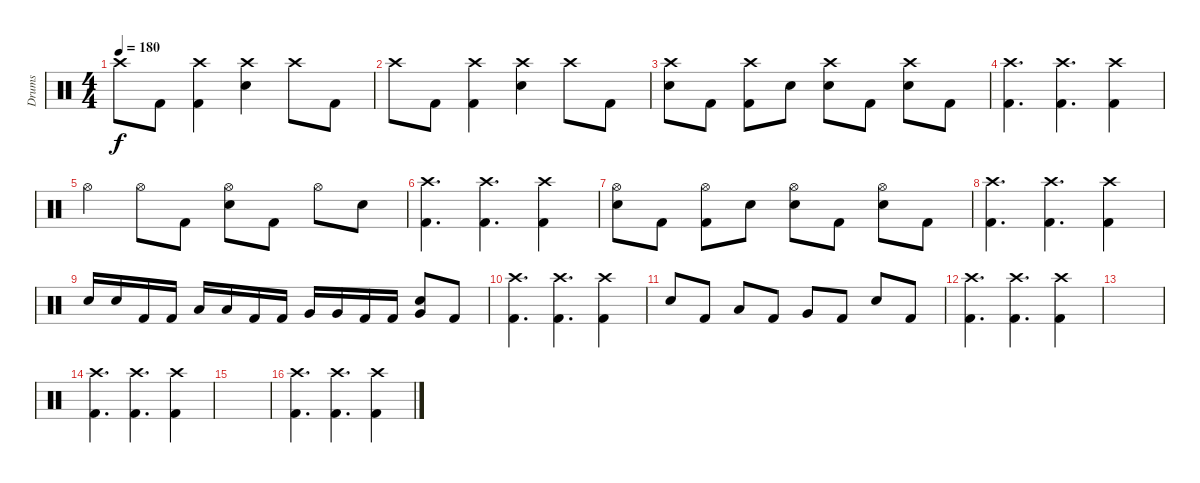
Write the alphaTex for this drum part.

\track ("Drums" "Drums") {instrument percussion}
\staff {score}
\articulation defaults
\ts (4 4)
\tempo 180
\clef neutral
\ks c "Crash high (hit)".8{dy f} "Kick (hit) 2".8
("Crash high (hit)" "Kick (hit) 2").4 ("Crash high (hit)" "Electric Snare (hit)").4 "Crash high (hit)".8 "Kick (hit) 2".8 |
"Crash high (hit)".8 "Kick (hit) 2".8 ("Crash high (hit)" "Kick (hit) 2").4 ("Crash high (hit)" "Electric Snare (hit)").4 "Crash high (hit)".8 "Kick (hit) 2".8 |
("Crash high (hit)" "Electric Snare (hit)").8 "Kick (hit) 2".8 ("Crash high (hit)" "Kick (hit) 2").8 "Electric Snare (hit)".8 ("Crash high (hit)" "Electric Snare (hit)").8 "Kick (hit) 2".8 ("Crash high (hit)" "Electric Snare (hit)").8 "Kick (hit) 2".8 |
("Crash high (hit)" "Kick (hit) 2").4{d} ("Crash high (hit)" "Kick (hit) 2").4{d} ("Crash high (hit)" "Kick (hit) 2").4 |
"Hi-Hat (open)".4 "Hi-Hat (open)".8 "Kick (hit) 2".8 ("Hi-Hat (open)" "Electric Snare (hit)").8 "Kick (hit) 2".8 "Hi-Hat (open)".8 "Electric Snare (hit)".8 |
("Crash high (hit)" "Kick (hit) 2").4{d} ("Crash high (hit)" "Kick (hit) 2").4{d} ("Crash high (hit)" "Kick (hit) 2").4 |
("Hi-Hat (open)" "Electric Snare (hit)").8 "Kick (hit) 2".8 ("Hi-Hat (open)" "Kick (hit) 2").8 "Electric Snare (hit)".8 ("Hi-Hat (open)" "Electric Snare (hit)").8 "Kick (hit) 2".8 ("Hi-Hat (open)" "Electric Snare (hit)").8 "Kick (hit) 2".8 |
("Crash high (hit)" "Kick (hit) 2").4{d} ("Crash high (hit)" "Kick (hit) 2").4{d} ("Crash high (hit)" "Kick (hit) 2").4 |
"Electric Snare (hit)".16 "Electric Snare (hit)".16 "Kick (hit) 2".16 "Kick (hit) 2".16 "Low Tom (hit)".16 "Low Tom (hit)".16 "Kick (hit) 2".16 "Kick (hit) 2".16 "Very Low Tom (hit)".16 "Very Low Tom (hit)".16 "Kick (hit) 2".16 "Kick (hit) 2".16 ("Very Low Tom (hit)" "Electric Snare (hit)").8 "Kick (hit) 2".8 |
("Crash high (hit)" "Kick (hit) 2").4{d} ("Crash high (hit)" "Kick (hit) 2").4{d} ("Crash high (hit)" "Kick (hit) 2").4 |
"Electric Snare (hit)".8 "Kick (hit) 2".8 "Low Tom (hit)".8 "Kick (hit) 2".8 "Very Low Tom (hit)".8 "Kick (hit) 2".8 "Electric Snare (hit)".8 "Kick (hit) 2".8 |
("Crash high (hit)" "Kick (hit) 2").4{d} ("Crash high (hit)" "Kick (hit) 2").4{d} ("Crash high (hit)" "Kick (hit) 2").4 |
|
("Crash high (hit)" "Kick (hit) 2").4{d} ("Crash high (hit)" "Kick (hit) 2").4{d} ("Crash high (hit)" "Kick (hit) 2").4 |
|
("Crash high (hit)" "Kick (hit) 2").4{d} ("Crash high (hit)" "Kick (hit) 2").4{d} ("Crash high (hit)" "Kick (hit) 2").4
